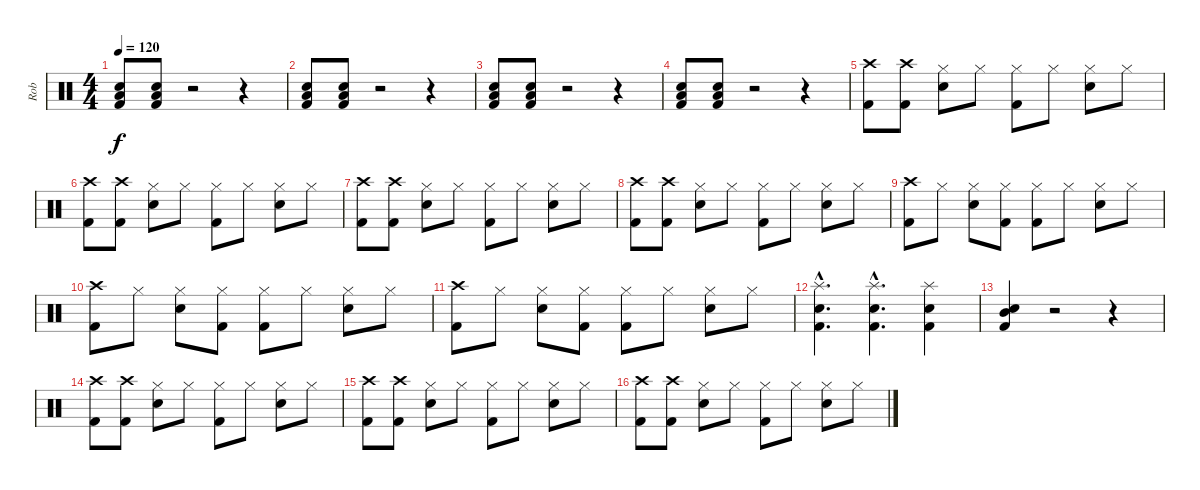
\track ("Rob" "Rob") {instrument percussion}
\staff {score}
\articulation defaults
\ts (4 4)
\tempo 120
\clef neutral
\ks c
("Kick (hit) 2" "Low Tom (hit)" "Snare (hit) 2").8{dy f} ("Kick (hit) 2" "Low Tom (hit)" "Snare (hit) 2").8 r.2 r.4 |
("Kick (hit) 2" "Low Tom (hit)" "Snare (hit) 2").8 ("Kick (hit) 2" "Low Tom (hit)" "Snare (hit) 2").8 r.2 r.4 |
("Kick (hit) 2" "Low Tom (hit)" "Snare (hit) 2").8 ("Kick (hit) 2" "Low Tom (hit)" "Snare (hit) 2").8 r.2 r.4 |
("Kick (hit) 2" "Low Tom (hit)" "Snare (hit) 2").8 ("Kick (hit) 2" "Low Tom (hit)" "Snare (hit) 2").8 r.2 r.4 |
("Crash high (hit)" "Kick (hit) 2").8 ("Crash high (hit)" "Kick (hit) 2").8 ("Hi-Hat (closed)" "Snare (hit) 2").8 "Hi-Hat (closed)".8 ("Hi-Hat (closed)" "Kick (hit) 2").8 "Hi-Hat (closed)".8 ("Hi-Hat (closed)" "Snare (hit) 2").8 "Hi-Hat (closed)".8 |
("Crash high (hit)" "Kick (hit) 2").8 ("Crash high (hit)" "Kick (hit) 2").8 ("Hi-Hat (closed)" "Snare (hit) 2").8 "Hi-Hat (closed)".8 ("Hi-Hat (closed)" "Kick (hit) 2").8 "Hi-Hat (closed)".8 ("Hi-Hat (closed)" "Snare (hit) 2").8 "Hi-Hat (closed)".8 |
("Crash high (hit)" "Kick (hit) 2").8 ("Crash high (hit)" "Kick (hit) 2").8 ("Hi-Hat (closed)" "Snare (hit) 2").8 "Hi-Hat (closed)".8 ("Hi-Hat (closed)" "Kick (hit) 2").8 "Hi-Hat (closed)".8 ("Hi-Hat (closed)" "Snare (hit) 2").8 "Hi-Hat (closed)".8 |
("Crash high (hit)" "Kick (hit) 2").8 ("Crash high (hit)" "Kick (hit) 2").8 ("Hi-Hat (closed)" "Snare (hit) 2").8 "Hi-Hat (closed)".8 ("Hi-Hat (closed)" "Kick (hit) 2").8 "Hi-Hat (closed)".8 ("Hi-Hat (closed)" "Snare (hit) 2").8 "Hi-Hat (closed)".8 |
("Crash high (hit)" "Kick (hit) 2").8 "Hi-Hat (closed)".8 ("Hi-Hat (closed)" "Snare (hit) 2").8 ("Hi-Hat (closed)" "Kick (hit) 2").8 ("Hi-Hat (closed)" "Kick (hit) 2").8 "Hi-Hat (closed)".8 ("Hi-Hat (closed)" "Snare (hit) 2").8 "Hi-Hat (closed)".8 |
("Crash high (hit)" "Kick (hit) 2").8 "Hi-Hat (closed)".8 ("Hi-Hat (closed)" "Snare (hit) 2").8 ("Hi-Hat (closed)" "Kick (hit) 2").8 ("Hi-Hat (closed)" "Kick (hit) 2").8 "Hi-Hat (closed)".8 ("Hi-Hat (closed)" "Snare (hit) 2").8 "Hi-Hat (closed)".8 |
("Crash high (hit)" "Kick (hit) 2").8 "Hi-Hat (closed)".8 ("Hi-Hat (closed)" "Snare (hit) 2").8 ("Hi-Hat (closed)" "Kick (hit) 2").8 ("Hi-Hat (closed)" "Kick (hit) 2").8 "Hi-Hat (closed)".8 ("Hi-Hat (closed)" "Snare (hit) 2").8 "Hi-Hat (closed)".8 |
("Splash (hit)"{hac} "Snare (hit) 2"{hac} "Kick (hit) 2"{hac}).4{d} ("Splash (hit)"{hac} "Snare (hit) 2"{hac} "Kick (hit) 2"{hac}).4{d} ("Splash (hit)" "Snare (hit) 2" "Kick (hit) 2").4 |
("Mid Tom (hit)" "Kick (hit) 2" "Snare (hit) 2").4 r.2 r.4 |
("Crash high (hit)" "Kick (hit) 2").8 ("Crash high (hit)" "Kick (hit) 2").8 ("Hi-Hat (closed)" "Snare (hit) 2").8 "Hi-Hat (closed)".8 ("Hi-Hat (closed)" "Kick (hit) 2").8 "Hi-Hat (closed)".8 ("Hi-Hat (closed)" "Snare (hit) 2").8 "Hi-Hat (closed)".8 |
("Crash high (hit)" "Kick (hit) 2").8 ("Crash high (hit)" "Kick (hit) 2").8 ("Hi-Hat (closed)" "Snare (hit) 2").8 "Hi-Hat (closed)".8 ("Hi-Hat (closed)" "Kick (hit) 2").8 "Hi-Hat (closed)".8 ("Hi-Hat (closed)" "Snare (hit) 2").8 "Hi-Hat (closed)".8 |
("Crash high (hit)" "Kick (hit) 2").8 ("Crash high (hit)" "Kick (hit) 2").8 ("Hi-Hat (closed)" "Snare (hit) 2").8 "Hi-Hat (closed)".8 ("Hi-Hat (closed)" "Kick (hit) 2").8 "Hi-Hat (closed)".8 ("Hi-Hat (closed)" "Snare (hit) 2").8 "Hi-Hat (closed)".8
